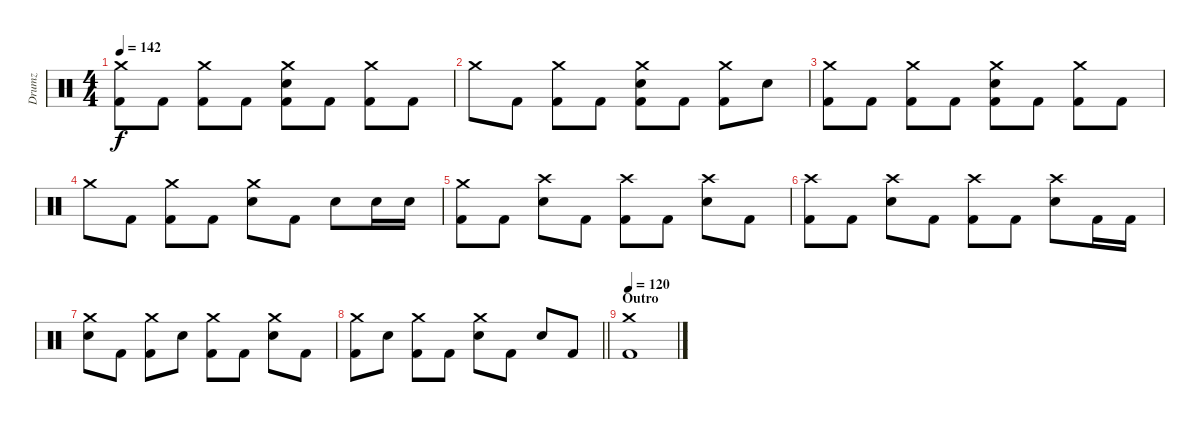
\track ("Drumz" "Drumz") {instrument percussion}
\staff {score}
\articulation defaults
\ts (4 4)
\tempo 142
\clef neutral
\ks c
("Crash medium (hit)" "Kick (hit) 2").8{dy f} "Kick (hit) 2".8 ("Crash medium (hit)" "Kick (hit) 2").8 "Kick (hit) 2".8 ("Crash medium (hit)" "Electric Snare (hit)" "Kick (hit) 2").8 "Kick (hit) 2".8 ("Crash medium (hit)" "Kick (hit) 2").8 "Kick (hit) 2".8 |
"Crash medium (hit)".8 "Kick (hit) 2".8 ("Crash medium (hit)" "Kick (hit) 2").8 "Kick (hit) 2".8 ("Crash medium (hit)" "Electric Snare (hit)" "Kick (hit) 2").8 "Kick (hit) 2".8 ("Crash medium (hit)" "Kick (hit) 2").8 "Electric Snare (hit)".8 |
("Crash medium (hit)" "Kick (hit) 2").8 "Kick (hit) 2".8 ("Crash medium (hit)" "Kick (hit) 2").8 "Kick (hit) 2".8 ("Crash medium (hit)" "Electric Snare (hit)" "Kick (hit) 2").8 "Kick (hit) 2".8 ("Crash medium (hit)" "Kick (hit) 2").8 "Kick (hit) 2".8 |
"Crash medium (hit)".8 "Kick (hit) 2".8 ("Crash medium (hit)" "Kick (hit) 2").8 "Kick (hit) 2".8 ("Crash medium (hit)" "Electric Snare (hit)").8 "Kick (hit) 2".8 "Electric Snare (hit)".8 "Electric Snare (hit)".16 "Electric Snare (hit)".16 |
("Crash medium (hit)" "Kick (hit) 2").8 "Kick (hit) 2".8 ("Crash high (hit)" "Electric Snare (hit)").8 "Kick (hit) 2".8 ("Crash high (hit)" "Kick (hit) 2").8 "Kick (hit) 2".8 ("Crash high (hit)" "Electric Snare (hit)").8 "Kick (hit) 2".8 |
("Crash high (hit)" "Kick (hit) 2").8 "Kick (hit) 2".8 ("Crash high (hit)" "Electric Snare (hit)").8 "Kick (hit) 2".8 ("Crash high (hit)" "Kick (hit) 2").8 "Kick (hit) 2".8 ("Crash high (hit)" "Electric Snare (hit)").8 "Kick (hit) 2".16 "Kick (hit) 2".16 |
("Crash medium (hit)" "Electric Snare (hit)").8 "Kick (hit) 2".8 ("Crash medium (hit)" "Kick (hit) 2").8 "Electric Snare (hit)".8 ("Crash medium (hit)" "Kick (hit) 2").8 "Kick (hit) 2".8 ("Crash medium (hit)" "Electric Snare (hit)").8 "Kick (hit) 2".8 |
\barLineRight lightlight
("Crash medium (hit)" "Kick (hit) 2").8 "Electric Snare (hit)".8 ("Crash medium (hit)" "Kick (hit) 2").8 "Kick (hit) 2".8 ("Crash medium (hit)" "Electric Snare (hit)").8 "Kick (hit) 2".8 "Electric Snare (hit)".8 "Kick (hit) 2".8 |
\section ("" "Outro")
\tempo 120
("Crash medium (hit)" "Kick (hit) 2").1
